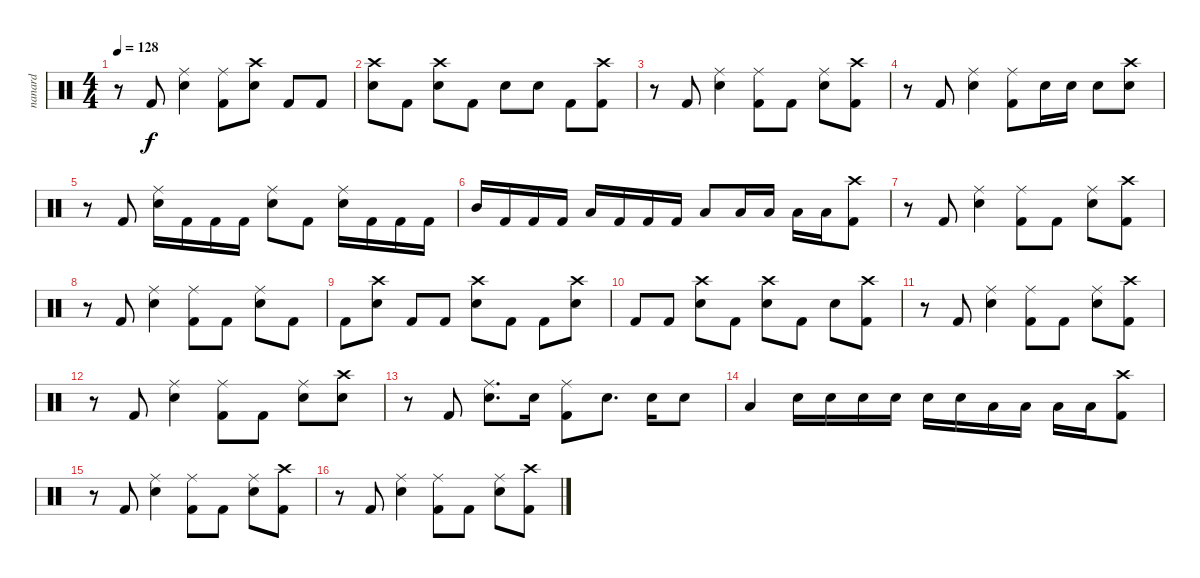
\track ("nanard" "nanard") {instrument percussion}
\staff {score}
\articulation defaults
\ts (4 4)
\tempo 128
\clef neutral
\ks c
r.8{dy f} "Kick (hit) 2".8 ("Ride (middle)" "Electric Snare (hit)").4 ("Ride (middle)" "Kick (hit) 2").8 ("Crash high (hit)" "Electric Snare (hit)").8 "Kick (hit) 2".8 "Kick (hit) 2".8 |
("Crash high (hit)" "Electric Snare (hit)").8 "Kick (hit) 2".8 ("Crash high (hit)" "Electric Snare (hit)").8 "Kick (hit) 2".8 "Electric Snare (hit)".8 "Electric Snare (hit)".8 "Kick (hit) 2".8 ("Crash high (hit)" "Kick (hit) 2").8 |
r.8 "Kick (hit) 2".8 ("Ride (middle)" "Electric Snare (hit)").4 ("Ride (middle)" "Kick (hit) 2").8 "Kick (hit) 2".8 ("Ride (middle)" "Electric Snare (hit)").8 ("Crash high (hit)" "Kick (hit) 2").8 |
r.8 "Kick (hit) 2".8 ("Ride (middle)" "Electric Snare (hit)").4 ("Ride (middle)" "Kick (hit) 2").8 "Electric Snare (hit)".16 "Electric Snare (hit)".16 "Electric Snare (hit)".8 ("Crash high (hit)" "Electric Snare (hit)").8 |
r.8 "Kick (hit) 2".8 ("Ride (middle)" "Electric Snare (hit)").16 "Kick (hit) 2".16 "Kick (hit) 2".16 "Kick (hit) 2".16 ("Ride (middle)" "Electric Snare (hit)").8 "Kick (hit) 2".8 ("Ride (middle)" "Electric Snare (hit)").16 "Kick (hit) 2".16 "Kick (hit) 2".16 "Kick (hit) 2".16 |
"Mid Tom (hit)".16 "Kick (hit) 2".16 "Kick (hit) 2".16 "Kick (hit) 2".16 "Low Tom (hit)".16 "Kick (hit) 2".16 "Kick (hit) 2".16 "Kick (hit) 2".16 "Low Floor Tom (hit)".8 "Low Floor Tom (hit)".16 "Low Floor Tom (hit)".16 "Low Floor Tom (hit)".16 "Low Floor Tom (hit)".16 ("Crash high (hit)" "Kick (hit) 2").8 |
r.8 "Kick (hit) 2".8 ("Ride (middle)" "Electric Snare (hit)").4 ("Ride (middle)" "Kick (hit) 2").8 "Kick (hit) 2".8 ("Ride (middle)" "Electric Snare (hit)").8 ("Crash high (hit)" "Kick (hit) 2").8 |
r.8 "Kick (hit) 2".8 ("Ride (middle)" "Electric Snare (hit)").4 ("Ride (middle)" "Kick (hit) 2").8 "Kick (hit) 2".8 ("Ride (middle)" "Electric Snare (hit)").8 "Kick (hit) 2".8 |
"Kick (hit) 2".8 ("Crash high (hit)" "Electric Snare (hit)").8 "Kick (hit) 2".8 "Kick (hit) 2".8 ("Crash high (hit)" "Electric Snare (hit)").8 "Kick (hit) 2".8 "Kick (hit) 2".8 ("Crash high (hit)" "Electric Snare (hit)").8 |
"Kick (hit) 2".8 "Kick (hit) 2".8 ("Crash high (hit)" "Electric Snare (hit)").8 "Kick (hit) 2".8 ("Crash high (hit)" "Electric Snare (hit)").8 "Kick (hit) 2".8 "Electric Snare (hit)".8 ("Crash high (hit)" "Kick (hit) 2").8 |
r.8 "Kick (hit) 2".8 ("Ride (middle)" "Electric Snare (hit)").4 ("Ride (middle)" "Kick (hit) 2").8 "Kick (hit) 2".8 ("Ride (middle)" "Electric Snare (hit)").8 ("Crash high (hit)" "Kick (hit) 2").8 |
r.8 "Kick (hit) 2".8 ("Ride (middle)" "Electric Snare (hit)").4 ("Ride (middle)" "Kick (hit) 2").8 "Kick (hit) 2".8 ("Ride (middle)" "Electric Snare (hit)").8 ("Crash high (hit)" "Electric Snare (hit)").8 |
r.8 "Kick (hit) 2".8 ("Ride (middle)" "Electric Snare (hit)").8{d} "Electric Snare (hit)".16 ("Ride (middle)" "Kick (hit) 2").8 "Electric Snare (hit)".8{d} "Electric Snare (hit)".16 "Electric Snare (hit)".8 |
"Low Tom (hit)".4 "Electric Snare (hit)".16 "Electric Snare (hit)".16 "Electric Snare (hit)".16 "Electric Snare (hit)".16 "Electric Snare (hit)".16 "Electric Snare (hit)".16 "Low Tom (hit)".16 "Low Tom (hit)".16 "Low Floor Tom (hit)".16 "Low Floor Tom (hit)".16 ("Crash high (hit)" "Kick (hit) 2").8 |
r.8 "Kick (hit) 2".8 ("Ride (middle)" "Electric Snare (hit)").4 ("Ride (middle)" "Kick (hit) 2").8 "Kick (hit) 2".8 ("Ride (middle)" "Electric Snare (hit)").8 ("Crash high (hit)" "Kick (hit) 2").8 |
r.8 "Kick (hit) 2".8 ("Ride (middle)" "Electric Snare (hit)").4 ("Ride (middle)" "Kick (hit) 2").8 "Kick (hit) 2".8 ("Ride (middle)" "Electric Snare (hit)").8 ("Crash high (hit)" "Kick (hit) 2").8
